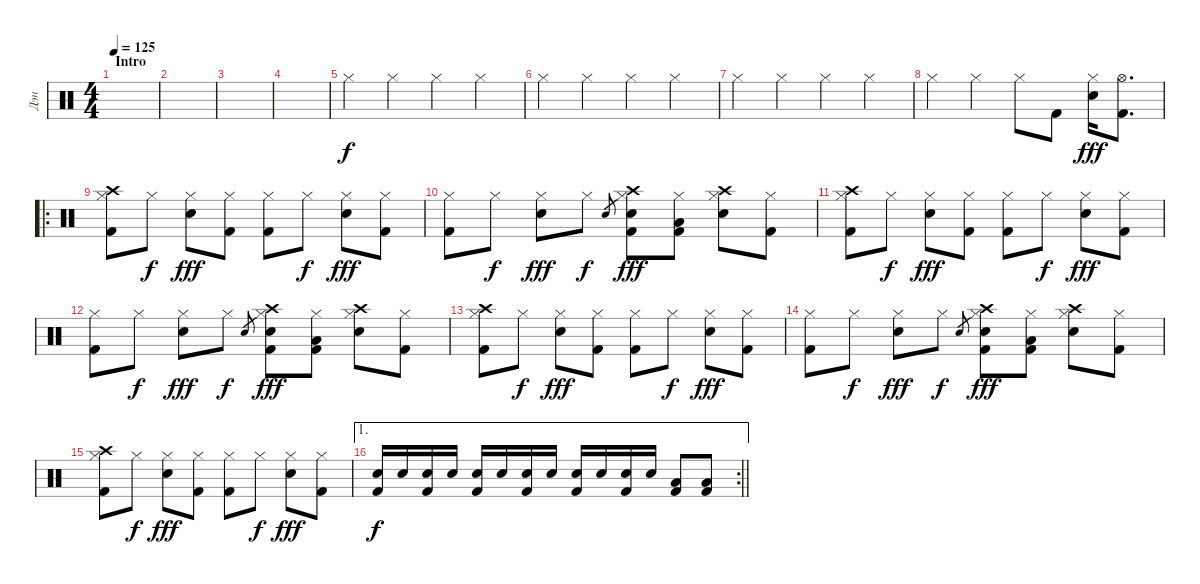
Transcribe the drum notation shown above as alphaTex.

\track ("Дэн" "Дэн") {instrument percussion}
\staff {score}
\articulation defaults
\ts (4 4)
\section ("" "Intro")
\tempo 125
\clef neutral
\ks c
|
|
|
|
"Hi-Hat (closed)".4 "Hi-Hat (closed)".4 "Hi-Hat (closed)".4 "Hi-Hat (closed)".4 |
"Hi-Hat (closed)".4 "Hi-Hat (closed)".4 "Hi-Hat (closed)".4 "Hi-Hat (closed)".4 |
"Hi-Hat (closed)".4 "Hi-Hat (closed)".4 "Hi-Hat (closed)".4 "Hi-Hat (closed)".4 |
"Hi-Hat (closed)".4 "Hi-Hat (closed)".4 "Hi-Hat (closed)".8 "Kick (hit) 2".8 ("Hi-Hat (closed)" "Electric Snare (hit)").16{dy fff} ("Hi-Hat (open)" "Kick (hit) 2").8{d} |
\ro
("Crash high (hit)" "Hi-Hat (closed)" "Kick (hit) 2").8 "Hi-Hat (closed)".8{dy f} ("Hi-Hat (closed)" "Electric Snare (hit)").8{dy fff} ("Hi-Hat (closed)" "Kick (hit) 2").8 ("Hi-Hat (closed)" "Kick (hit) 2").8 "Hi-Hat (closed)".8{dy f} ("Hi-Hat (closed)" "Electric Snare (hit)").8{dy fff} ("Hi-Hat (closed)" "Kick (hit) 2").8 |
("Hi-Hat (closed)" "Kick (hit) 2").8 "Hi-Hat (closed)".8{dy f} ("Hi-Hat (closed)" "Electric Snare (hit)").8{dy fff} "Hi-Hat (closed)".8{dy f} "Electric Snare (hit)".8{gr} ("Crash high (hit)" "Hi-Hat (closed)" "Electric Snare (hit)" "Kick (hit) 2").8{dy fff} ("Hi-Hat (closed)" "Low Tom (hit)" "Kick (hit) 2").8 ("Crash high (hit)" "Hi-Hat (closed)" "Electric Snare (hit)").8 ("Hi-Hat (closed)" "Kick (hit) 2").8 |
("Crash high (hit)" "Hi-Hat (closed)" "Kick (hit) 2").8 "Hi-Hat (closed)".8{dy f} ("Hi-Hat (closed)" "Electric Snare (hit)").8{dy fff} ("Hi-Hat (closed)" "Kick (hit) 2").8 ("Hi-Hat (closed)" "Kick (hit) 2").8 "Hi-Hat (closed)".8{dy f} ("Hi-Hat (closed)" "Electric Snare (hit)").8{dy fff} ("Hi-Hat (closed)" "Kick (hit) 2").8 |
("Hi-Hat (closed)" "Kick (hit) 2").8 "Hi-Hat (closed)".8{dy f} ("Hi-Hat (closed)" "Electric Snare (hit)").8{dy fff} "Hi-Hat (closed)".8{dy f} "Electric Snare (hit)".8{gr} ("Crash high (hit)" "Hi-Hat (closed)" "Electric Snare (hit)" "Kick (hit) 2").8{dy fff} ("Hi-Hat (closed)" "Low Tom (hit)" "Kick (hit) 2").8 ("Crash high (hit)" "Hi-Hat (closed)" "Electric Snare (hit)").8 ("Hi-Hat (closed)" "Kick (hit) 2").8 |
("Crash high (hit)" "Hi-Hat (closed)" "Kick (hit) 2").8 "Hi-Hat (closed)".8{dy f} ("Hi-Hat (closed)" "Electric Snare (hit)").8{dy fff} ("Hi-Hat (closed)" "Kick (hit) 2").8 ("Hi-Hat (closed)" "Kick (hit) 2").8 "Hi-Hat (closed)".8{dy f} ("Hi-Hat (closed)" "Electric Snare (hit)").8{dy fff} ("Hi-Hat (closed)" "Kick (hit) 2").8 |
("Hi-Hat (closed)" "Kick (hit) 2").8 "Hi-Hat (closed)".8{dy f} ("Hi-Hat (closed)" "Electric Snare (hit)").8{dy fff} "Hi-Hat (closed)".8{dy f} "Electric Snare (hit)".8{gr} ("Crash high (hit)" "Hi-Hat (closed)" "Electric Snare (hit)" "Kick (hit) 2").8{dy fff} ("Hi-Hat (closed)" "Low Tom (hit)" "Kick (hit) 2").8 ("Crash high (hit)" "Hi-Hat (closed)" "Electric Snare (hit)").8 ("Hi-Hat (closed)" "Kick (hit) 2").8 |
("Crash high (hit)" "Hi-Hat (closed)" "Kick (hit) 2").8 "Hi-Hat (closed)".8{dy f} ("Hi-Hat (closed)" "Electric Snare (hit)").8{dy fff} ("Hi-Hat (closed)" "Kick (hit) 2").8 ("Hi-Hat (closed)" "Kick (hit) 2").8 "Hi-Hat (closed)".8{dy f} ("Hi-Hat (closed)" "Electric Snare (hit)").8{dy fff} ("Hi-Hat (closed)" "Kick (hit) 2").8 |
\ae 1
\rc 2
\barLineRight lightlight
("Electric Snare (hit)" "Kick (hit) 2").16{dy f} "Electric Snare (hit)".16 ("Electric Snare (hit)" "Kick (hit) 2").16 "Electric Snare (hit)".16 ("Electric Snare (hit)" "Kick (hit) 2").16 "Electric Snare (hit)".16 ("Electric Snare (hit)" "Kick (hit) 2").16 "Electric Snare (hit)".16 ("Electric Snare (hit)" "Kick (hit) 2").16 "Electric Snare (hit)".16 ("Electric Snare (hit)" "Kick (hit) 2").16 "Electric Snare (hit)".16 ("Low Tom (hit)" "Kick (hit) 2").8 ("Low Tom (hit)" "Kick (hit) 2").8
